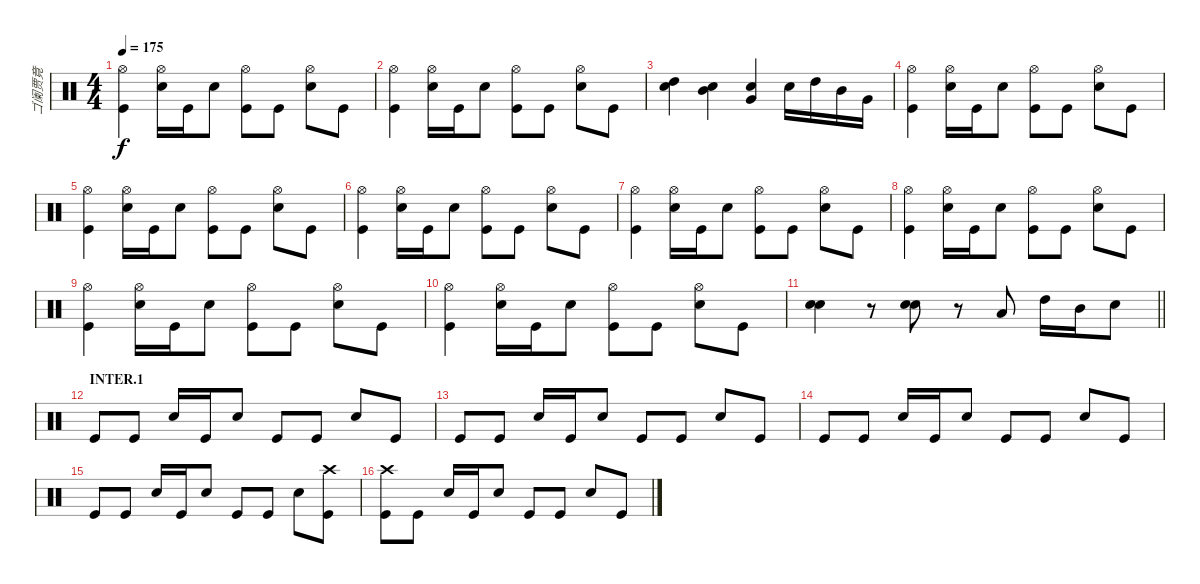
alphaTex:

\track ("ゴ阑贾竟" "ゴ阑贾竟") {instrument percussion}
\staff {score}
\articulation defaults
\ts (4 4)
\tempo 175
\clef neutral
\ks c
("Hi-Hat (open)" "Kick (hit)").4{dy f} ("Snare (hit) 2" "Hi-Hat (open)").16 "Kick (hit)".16 "Snare (hit) 2".8 ("Kick (hit)" "Hi-Hat (open)").8 "Kick (hit)".8 ("Snare (hit) 2" "Hi-Hat (open)").8 "Kick (hit)".8 |
("Hi-Hat (open)" "Kick (hit)").4 ("Snare (hit) 2" "Hi-Hat (open)").16 "Kick (hit)".16 "Snare (hit) 2".8 ("Kick (hit)" "Hi-Hat (open)").8 "Kick (hit)".8 ("Snare (hit) 2" "Hi-Hat (open)").8 "Kick (hit)".8 |
("Snare (hit) 2" "High Tom (hit)").4 ("Mid Tom (hit)" "Snare (hit) 2").4 ("Very Low Tom (hit)" "Snare (hit) 2").4 "Snare (hit) 2".16 "High Tom (hit)".16 "Mid Tom (hit)".16 "Very Low Tom (hit)".16 |
("Hi-Hat (open)" "Kick (hit)").4 ("Snare (hit) 2" "Hi-Hat (open)").16 "Kick (hit)".16 "Snare (hit) 2".8 ("Kick (hit)" "Hi-Hat (open)").8 "Kick (hit)".8 ("Snare (hit) 2" "Hi-Hat (open)").8 "Kick (hit)".8 |
("Hi-Hat (open)" "Kick (hit)").4 ("Snare (hit) 2" "Hi-Hat (open)").16 "Kick (hit)".16 "Snare (hit) 2".8 ("Kick (hit)" "Hi-Hat (open)").8 "Kick (hit)".8 ("Snare (hit) 2" "Hi-Hat (open)").8 "Kick (hit)".8 |
("Hi-Hat (open)" "Kick (hit)").4 ("Snare (hit) 2" "Hi-Hat (open)").16 "Kick (hit)".16 "Snare (hit) 2".8 ("Kick (hit)" "Hi-Hat (open)").8 "Kick (hit)".8 ("Snare (hit) 2" "Hi-Hat (open)").8 "Kick (hit)".8 |
("Hi-Hat (open)" "Kick (hit)").4 ("Snare (hit) 2" "Hi-Hat (open)").16 "Kick (hit)".16 "Snare (hit) 2".8 ("Kick (hit)" "Hi-Hat (open)").8 "Kick (hit)".8 ("Snare (hit) 2" "Hi-Hat (open)").8 "Kick (hit)".8 |
("Hi-Hat (open)" "Kick (hit)").4 ("Snare (hit) 2" "Hi-Hat (open)").16 "Kick (hit)".16 "Snare (hit) 2".8 ("Kick (hit)" "Hi-Hat (open)").8 "Kick (hit)".8 ("Snare (hit) 2" "Hi-Hat (open)").8 "Kick (hit)".8 |
("Hi-Hat (open)" "Kick (hit)").4 ("Snare (hit) 2" "Hi-Hat (open)").16 "Kick (hit)".16 "Snare (hit) 2".8 ("Kick (hit)" "Hi-Hat (open)").8 "Kick (hit)".8 ("Snare (hit) 2" "Hi-Hat (open)").8 "Kick (hit)".8 |
("Hi-Hat (open)" "Kick (hit)").4 ("Snare (hit) 2" "Hi-Hat (open)").16 "Kick (hit)".16 "Snare (hit) 2".8 ("Kick (hit)" "Hi-Hat (open)").8 "Kick (hit)".8 ("Snare (hit) 2" "Hi-Hat (open)").8 "Kick (hit)".8 |
\barLineRight lightlight
("Snare (hit) 2" "Snare (hit) 2").4 r.8 ("Snare (hit) 2" "Snare (hit) 2").8 r.8 "Low Floor Tom (hit)".8 "High Tom (hit)".16 "Mid Tom (hit)".16 "Snare (hit) 2".8 |
\section ("" "INTER.1")
"Kick (hit)".8 "Kick (hit)".8 "Snare (hit) 2".16 "Kick (hit)".16 "Snare (hit) 2".8 "Kick (hit)".8 "Kick (hit)".8 "Snare (hit) 2".8 "Kick (hit)".8 |
"Kick (hit)".8 "Kick (hit)".8 "Snare (hit) 2".16 "Kick (hit)".16 "Snare (hit) 2".8 "Kick (hit)".8 "Kick (hit)".8 "Snare (hit) 2".8 "Kick (hit)".8 |
"Kick (hit)".8 "Kick (hit)".8 "Snare (hit) 2".16 "Kick (hit)".16 "Snare (hit) 2".8 "Kick (hit)".8 "Kick (hit)".8 "Snare (hit) 2".8 "Kick (hit)".8 |
"Kick (hit)".8 "Kick (hit)".8 "Snare (hit) 2".16 "Kick (hit)".16 "Snare (hit) 2".8 "Kick (hit)".8 "Kick (hit)".8 "Snare (hit) 2".8 ("Kick (hit)" "Crash high (hit)").8 |
("Crash high (hit)" "Kick (hit)").8 "Kick (hit)".8 "Snare (hit) 2".16 "Kick (hit)".16 "Snare (hit) 2".8 "Kick (hit)".8 "Kick (hit)".8 "Snare (hit) 2".8 "Kick (hit)".8
